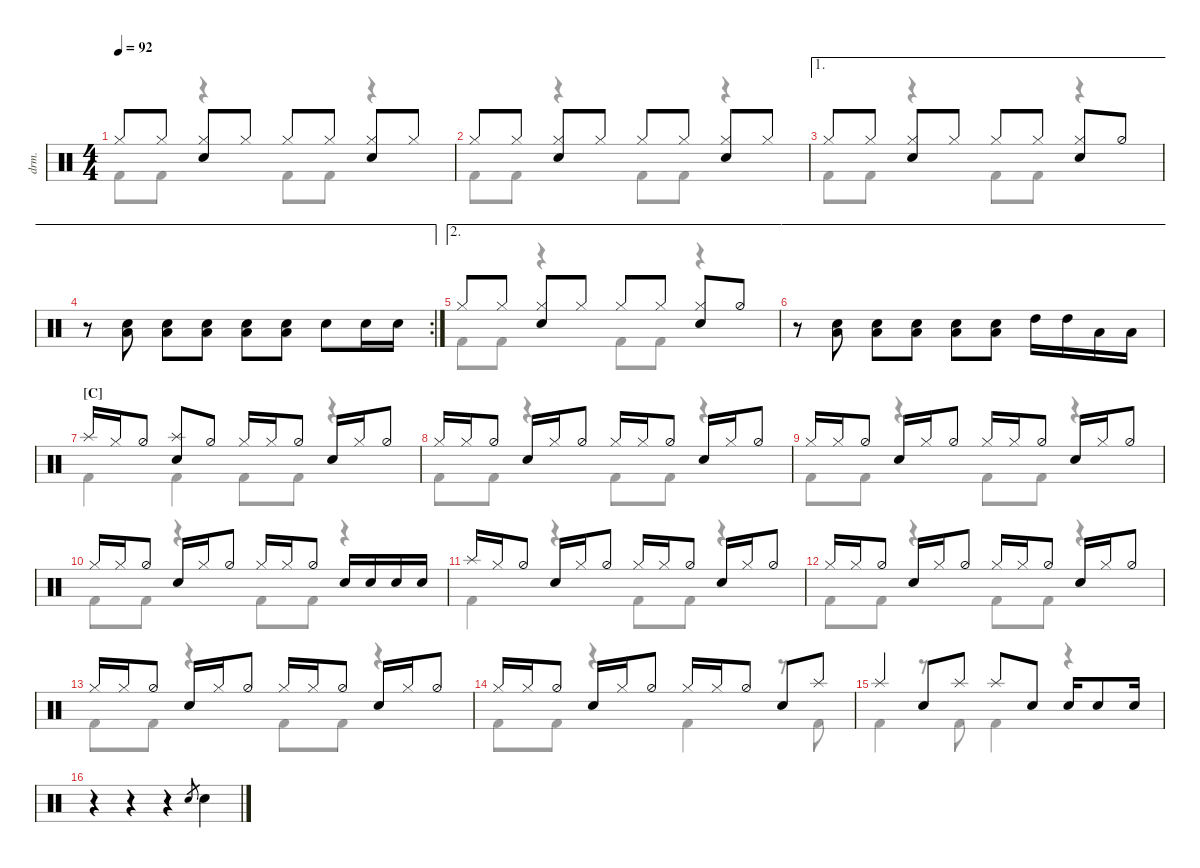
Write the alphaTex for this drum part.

\defaultSystemsLayout 4
\hideDynamics
\bracketExtendMode nobrackets
\track ("Drumkit" "drm.") {defaultSystemsLayout 4 instrument percussion}
\staff {score}
\articulation defaults
\voice
\ts (4 4)
\tempo 92
\clef neutral
\ks c "Hi-Hat (closed)".8{dy mf beam Up} "Hi-Hat (closed)".8{beam Up}
("Hi-Hat (closed)" "Snare (hit) 2").8{beam Up} "Hi-Hat (closed)".8{beam Up} "Hi-Hat (closed)".8{beam Up} "Hi-Hat (closed)".8{beam Up} ("Hi-Hat (closed)" "Snare (hit) 2").8{beam Up} "Hi-Hat (closed)".8{beam Up} |
"Hi-Hat (closed)".8{beam Up} "Hi-Hat (closed)".8{beam Up} ("Hi-Hat (closed)" "Snare (hit) 2").8{beam Up} "Hi-Hat (closed)".8{beam Up} "Hi-Hat (closed)".8{beam Up} "Hi-Hat (closed)".8{beam Up} ("Hi-Hat (closed)" "Snare (hit) 2").8{beam Up} "Hi-Hat (closed)".8{beam Up} |
\ae 1 "Hi-Hat (closed)".8{beam Up} "Hi-Hat (closed)".8{beam Up}
("Hi-Hat (closed)" "Snare (hit) 2").8{beam Up} "Hi-Hat (closed)".8{beam Up} "Hi-Hat (closed)".8{beam Up} "Hi-Hat (closed)".8{beam Up} ("Hi-Hat (closed)" "Snare (hit) 2").8{beam Up} "Hi-Hat (half)".8{beam Up} |
\ae 1
\rc 2
r.8{beam Down} ("Low Tom (hit)" "Snare (hit) 2").8{beam Down} ("Low Tom (hit)" "Snare (hit) 2").8{beam Down} ("Low Tom (hit)" "Snare (hit) 2").8{beam Down} ("Low Tom (hit)" "Snare (hit) 2").8{beam Down} ("Low Tom (hit)" "Snare (hit) 2").8{beam Down} "Snare (hit) 2".8{beam Down} "Snare (hit) 2".16{beam Down} "Snare (hit) 2".16{beam Down} |
\ae 2 "Hi-Hat (closed)".8{beam Up} "Hi-Hat (closed)".8{beam Up}
("Hi-Hat (closed)" "Snare (hit) 2").8{beam Up} "Hi-Hat (closed)".8{beam Up} "Hi-Hat (closed)".8{beam Up} "Hi-Hat (closed)".8{beam Up} ("Hi-Hat (closed)" "Snare (hit) 2").8{beam Up} "Hi-Hat (half)".8{beam Up} |
\ae 2
r.8{beam Down} ("Low Tom (hit)" "Snare (hit) 2").8{beam Down} ("Low Tom (hit)" "Snare (hit) 2").8{beam Down} ("Low Tom (hit)" "Snare (hit) 2").8{beam Down} ("Low Tom (hit)" "Snare (hit) 2").8{beam Down} ("Low Tom (hit)" "Snare (hit) 2").8{beam Down} "High Tom (hit)".16{beam Down} "High Tom (hit)".16{beam Down} "Low Tom (hit)".16{beam Down} "Low Tom (hit)".16{beam Down} |
\section ("C" "")
"Splash (hit)".16{beam Up} "Hi-Hat (closed)".16{beam Up} "Hi-Hat (half)".8{beam Up} ("Splash (hit)" "Snare (hit) 2").8{beam Up} "Hi-Hat (half)".8{beam Up} "Hi-Hat (closed)".16{beam Up} "Hi-Hat (closed)".16{beam Up} "Hi-Hat (half)".8{beam Up} "Snare (hit) 2".16{beam Up} "Hi-Hat (closed)".16{beam Up} "Hi-Hat (half)".8{beam Up} |
"Hi-Hat (closed)".16{beam Up} "Hi-Hat (closed)".16{beam Up} "Hi-Hat (half)".8{beam Up} "Snare (hit) 2".16{beam Up} "Hi-Hat (closed)".16{beam Up} "Hi-Hat (half)".8{beam Up} "Hi-Hat (closed)".16{beam Up} "Hi-Hat (closed)".16{beam Up} "Hi-Hat (half)".8{beam Up} "Snare (hit) 2".16{beam Up} "Hi-Hat (closed)".16{beam Up} "Hi-Hat (half)".8{beam Up} |
"Hi-Hat (closed)".16{beam Up} "Hi-Hat (closed)".16{beam Up} "Hi-Hat (half)".8{beam Up} "Snare (hit) 2".16{beam Up} "Hi-Hat (closed)".16{beam Up} "Hi-Hat (half)".8{beam Up} "Hi-Hat (closed)".16{beam Up} "Hi-Hat (closed)".16{beam Up} "Hi-Hat (half)".8{beam Up} "Snare (hit) 2".16{beam Up} "Hi-Hat (closed)".16{beam Up} "Hi-Hat (half)".8{beam Up} |
"Hi-Hat (closed)".16{beam Up} "Hi-Hat (closed)".16{beam Up} "Hi-Hat (half)".8{beam Up} "Snare (hit) 2".16{beam Up} "Hi-Hat (closed)".16{beam Up} "Hi-Hat (half)".8{beam Up} "Hi-Hat (closed)".16{beam Up} "Hi-Hat (closed)".16{beam Up} "Hi-Hat (half)".8{beam Up} "Snare (hit) 2".16{beam Up} "Snare (hit) 2".16{beam Up} "Snare (hit) 2".16{beam Up} "Snare (hit) 2".16{beam Up} |
"Splash (hit)".16{beam Up} "Hi-Hat (closed)".16{beam Up} "Hi-Hat (half)".8{beam Up} "Snare (hit) 2".16{beam Up} "Hi-Hat (closed)".16{beam Up} "Hi-Hat (half)".8{beam Up} "Hi-Hat (closed)".16{beam Up} "Hi-Hat (closed)".16{beam Up} "Hi-Hat (half)".8{beam Up} "Snare (hit) 2".16{beam Up} "Hi-Hat (closed)".16{beam Up} "Hi-Hat (half)".8{beam Up} |
"Hi-Hat (closed)".16{beam Up} "Hi-Hat (closed)".16{beam Up} "Hi-Hat (half)".8{beam Up} "Snare (hit) 2".16{beam Up} "Hi-Hat (closed)".16{beam Up} "Hi-Hat (half)".8{beam Up} "Hi-Hat (closed)".16{beam Up} "Hi-Hat (closed)".16{beam Up} "Hi-Hat (half)".8{beam Up} "Snare (hit) 2".16{beam Up} "Hi-Hat (closed)".16{beam Up} "Hi-Hat (half)".8{beam Up} |
"Hi-Hat (closed)".16{beam Up} "Hi-Hat (closed)".16{beam Up} "Hi-Hat (half)".8{beam Up} "Snare (hit) 2".16{beam Up} "Hi-Hat (closed)".16{beam Up} "Hi-Hat (half)".8{beam Up} "Hi-Hat (closed)".16{beam Up} "Hi-Hat (closed)".16{beam Up} "Hi-Hat (half)".8{beam Up} "Snare (hit) 2".16{beam Up} "Hi-Hat (closed)".16{beam Up} "Hi-Hat (half)".8{beam Up} |
"Hi-Hat (closed)".16{beam Up} "Hi-Hat (closed)".16{beam Up} "Hi-Hat (half)".8{beam Up} "Snare (hit) 2".16{beam Up} "Hi-Hat (closed)".16{beam Up} "Hi-Hat (half)".8{beam Up} "Hi-Hat (closed)".16{beam Up} "Hi-Hat (closed)".16{beam Up} "Hi-Hat (half)".8{beam Up} "Snare (hit) 2".8{beam Up} "Splash (hit)".8{beam Up} |
"Splash (hit)".4{beam Up} "Snare (hit) 2".8{beam Up} "Splash (hit)".8{beam Up} "Splash (hit)".8{beam Up} "Snare (hit) 2".8{beam Up} "Snare (hit) 2".16{beam Up} "Snare (hit) 2".8{beam Up} "Snare (hit) 2".16{beam Up} |
r.4{beam Down} r.4{beam Down} r.4{beam Down} "Snare (hit) 2".8{gr beam Up} "Snare (hit) 2".4{beam Down}
\voice
\clef neutral
\ottava regular
\simile none
\ks c "Kick (hit) 2".8{dy mf beam Down} "Kick (hit) 2".8{beam Down}
r.4{beam Down} "Kick (hit) 2".8{beam Down} "Kick (hit) 2".8{beam Down} r.4{beam Down} |
"Kick (hit) 2".8{beam Down} "Kick (hit) 2".8{beam Down} r.4{beam Down} "Kick (hit) 2".8{beam Down} "Kick (hit) 2".8{beam Down} r.4{beam Down} |
"Kick (hit) 2".8{beam Down} "Kick (hit) 2".8{beam Down} r.4{beam Down} "Kick (hit) 2".8{beam Down} "Kick (hit) 2".8{beam Down} r.4{beam Down} |
|
"Kick (hit) 2".8{beam Down} "Kick (hit) 2".8{beam Down} r.4{beam Down} "Kick (hit) 2".8{beam Down} "Kick (hit) 2".8{beam Down} r.4{beam Down} |
|
"Kick (hit) 2".4{beam Down} "Kick (hit) 2".4{beam Down} "Kick (hit) 2".8{beam Down} "Kick (hit) 2".8{beam Down} r.4{beam Down} |
"Kick (hit) 2".8{beam Down} "Kick (hit) 2".8{beam Down} r.4{beam Down} "Kick (hit) 2".8{beam Down} "Kick (hit) 2".8{beam Down} r.4{beam Down} |
"Kick (hit) 2".8{beam Down} "Kick (hit) 2".8{beam Down} r.4{beam Down} "Kick (hit) 2".8{beam Down} "Kick (hit) 2".8{beam Down} r.4{beam Down} |
"Kick (hit) 2".8{beam Down} "Kick (hit) 2".8{beam Down} r.4{beam Down} "Kick (hit) 2".8{beam Down} "Kick (hit) 2".8{beam Down} r.4{beam Down} |
"Kick (hit) 2".4{beam Down} r.4{beam Down} "Kick (hit) 2".8{beam Down} "Kick (hit) 2".8{beam Down} r.4{beam Down} |
"Kick (hit) 2".8{beam Down} "Kick (hit) 2".8{beam Down} r.4{beam Down} "Kick (hit) 2".8{beam Down} "Kick (hit) 2".8{beam Down} r.4{beam Down} |
"Kick (hit) 2".8{beam Down} "Kick (hit) 2".8{beam Down} r.4{beam Down} "Kick (hit) 2".8{beam Down} "Kick (hit) 2".8{beam Down} r.4{beam Down} |
"Kick (hit) 2".8{beam Down} "Kick (hit) 2".8{beam Down} r.4{beam Down} "Kick (hit) 2".4{beam Down} r.8{beam Down} "Kick (hit) 2".8{beam Down} |
"Kick (hit) 2".4{beam Down} r.8{beam Down} "Kick (hit) 2".8{beam Down} "Kick (hit) 2".4{beam Down} r.4{beam Down} |
